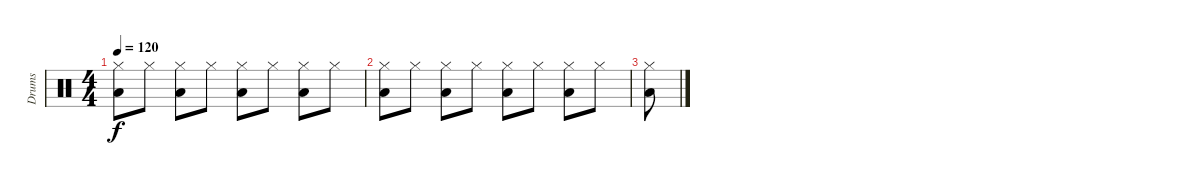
\track ("Drums" "Drums") {instrument percussion}
\staff {score}
\articulation defaults
\ts (4 4)
\tempo 120
\clef neutral
\ks c
("Hi-Hat (closed)" "Low Floor Tom (hit)").8{dy f} "Hi-Hat (closed)".8 ("Hi-Hat (closed)" "Low Floor Tom (hit)").8 "Hi-Hat (closed)".8 ("Hi-Hat (closed)" "Low Floor Tom (hit)").8 "Hi-Hat (closed)".8 ("Hi-Hat (closed)" "Low Floor Tom (hit)").8 "Hi-Hat (closed)".8 |
("Hi-Hat (closed)" "Low Floor Tom (hit)").8 "Hi-Hat (closed)".8 ("Hi-Hat (closed)" "Low Floor Tom (hit)").8 "Hi-Hat (closed)".8 ("Hi-Hat (closed)" "Low Floor Tom (hit)").8 "Hi-Hat (closed)".8 ("Hi-Hat (closed)" "Low Floor Tom (hit)").8 "Hi-Hat (closed)".8 |
("Hi-Hat (closed)" "Low Floor Tom (hit)").8
